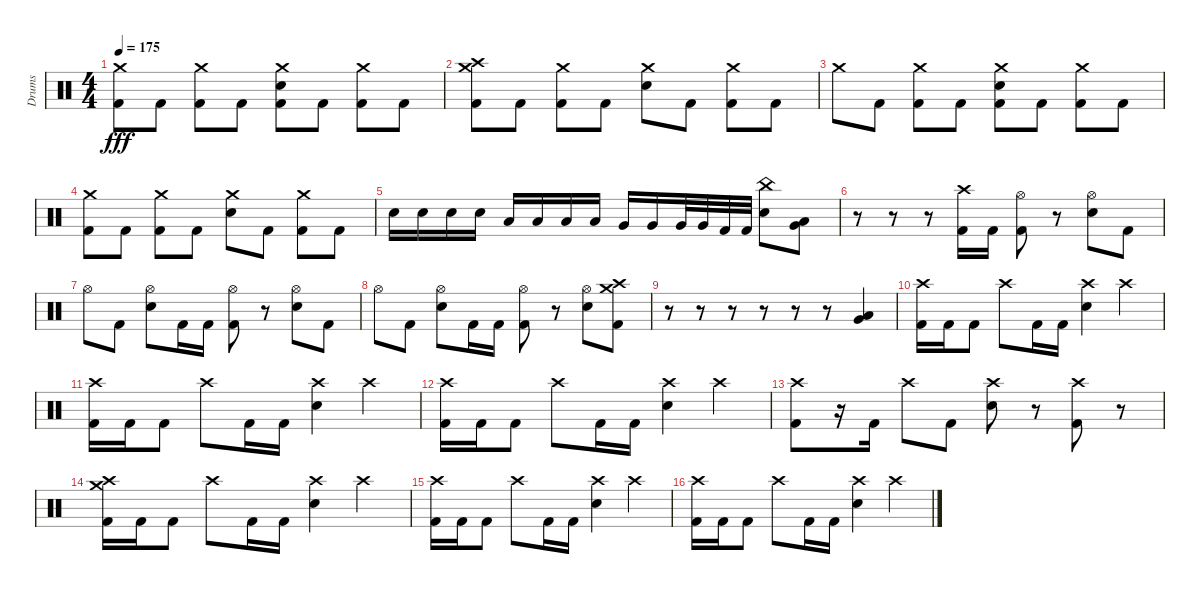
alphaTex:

\track ("Drums" "Drums") {instrument percussion}
\staff {score}
\articulation defaults
\ts (4 4)
\tempo 175
\clef neutral
\ks c
("Crash medium (hit)" "Kick (hit) 2").8{dy fff} "Kick (hit) 2".8 ("Crash medium (hit)" "Kick (hit) 2").8 "Kick (hit) 2".8 ("Crash medium (hit)" "Snare (hit) 2" "Kick (hit) 2").8 "Kick (hit) 2".8 ("Crash medium (hit)" "Kick (hit) 2").8 "Kick (hit) 2".8 |
("Crash high (hit)" "Crash medium (hit)" "Kick (hit) 2").8 "Kick (hit) 2".8 ("Crash medium (hit)" "Kick (hit) 2").8 "Kick (hit) 2".8 ("Crash medium (hit)" "Snare (hit) 2").8 "Kick (hit) 2".8 ("Crash medium (hit)" "Kick (hit) 2").8 "Kick (hit) 2".8 |
"Crash medium (hit)".8 "Kick (hit) 2".8 ("Crash medium (hit)" "Kick (hit) 2").8 "Kick (hit) 2".8 ("Crash medium (hit)" "Snare (hit) 2" "Kick (hit) 2").8 "Kick (hit) 2".8 ("Crash medium (hit)" "Kick (hit) 2").8 "Kick (hit) 2".8 |
("Crash medium (hit)" "Kick (hit) 2").8 "Kick (hit) 2".8 ("Crash medium (hit)" "Kick (hit) 2").8 "Kick (hit) 2".8 ("Crash medium (hit)" "Snare (hit) 2").8 "Kick (hit) 2".8 ("Crash medium (hit)" "Kick (hit) 2").8 "Kick (hit) 2".8 |
"Snare (hit) 2".16 "Snare (hit) 2".16 "Snare (hit) 2".16 "Snare (hit) 2".16 "Low Tom (hit)".16 "Low Tom (hit)".16 "Low Tom (hit)".16 "Low Tom (hit)".16 "Very Low Tom (hit)".16 "Very Low Tom (hit)".16 "Very Low Tom (hit)".32 "Very Low Tom (hit)".32 "Kick (hit) 2".32 "Kick (hit) 2".32 ("China (hit)" "Snare (hit) 2").8 ("Low Floor Tom (hit)" "Very Low Tom (hit)").8 |
r.8 r.8 r.8 ("Crash high (hit)" "Kick (hit) 2").16 "Kick (hit) 2".16 ("Hi-Hat (open)" "Kick (hit) 2").8 r.8 ("Hi-Hat (open)" "Snare (hit) 2").8 "Kick (hit) 2".8 |
"Hi-Hat (open)".8 "Kick (hit) 2".8 ("Hi-Hat (open)" "Snare (hit) 2").8 "Kick (hit) 2".16 "Kick (hit) 2".16 ("Hi-Hat (open)" "Kick (hit) 2").8 r.8 ("Hi-Hat (open)" "Snare (hit) 2").8 "Kick (hit) 2".8 |
"Hi-Hat (open)".8 "Kick (hit) 2".8 ("Hi-Hat (open)" "Snare (hit) 2").8 "Kick (hit) 2".16 "Kick (hit) 2".16 ("Hi-Hat (open)" "Kick (hit) 2").8 r.8 ("Hi-Hat (open)" "Snare (hit) 2").8 ("Crash medium (hit)" "Crash high (hit)" "Kick (hit) 2").8 |
r.8 r.8 r.8 r.8 r.8 r.8 ("Low Tom (hit)" "Very Low Tom (hit)").4 |
("Crash high (hit)" "Kick (hit) 2").16 "Kick (hit) 2".16 "Kick (hit) 2".8 "Crash high (hit)".8 "Kick (hit) 2".16 "Kick (hit) 2".16 ("Crash high (hit)" "Snare (hit) 2").4 "Crash high (hit)".4 |
("Crash high (hit)" "Kick (hit) 2").16 "Kick (hit) 2".16 "Kick (hit) 2".8 "Crash high (hit)".8 "Kick (hit) 2".16 "Kick (hit) 2".16 ("Crash high (hit)" "Snare (hit) 2").4 "Crash high (hit)".4 |
("Crash high (hit)" "Kick (hit) 2").16 "Kick (hit) 2".16 "Kick (hit) 2".8 "Crash high (hit)".8 "Kick (hit) 2".16 "Kick (hit) 2".16 ("Crash high (hit)" "Snare (hit) 2").4 "Crash high (hit)".4 |
("Crash high (hit)" "Kick (hit) 2").8 r.16 "Kick (hit) 2".16 "Crash high (hit)".8 "Kick (hit) 2".8 ("Crash high (hit)" "Snare (hit) 2").8 r.8 ("Crash high (hit)" "Kick (hit) 2").8 r.8 |
("Crash high (hit)" "Crash medium (hit)" "Kick (hit) 2").16 "Kick (hit) 2".16 "Kick (hit) 2".8 "Crash high (hit)".8 "Kick (hit) 2".16 "Kick (hit) 2".16 ("Crash high (hit)" "Snare (hit) 2").4 "Crash high (hit)".4 |
("Crash high (hit)" "Kick (hit) 2").16 "Kick (hit) 2".16 "Kick (hit) 2".8 "Crash high (hit)".8 "Kick (hit) 2".16 "Kick (hit) 2".16 ("Crash high (hit)" "Snare (hit) 2").4 "Crash high (hit)".4 |
("Crash high (hit)" "Kick (hit) 2").16 "Kick (hit) 2".16 "Kick (hit) 2".8 "Crash high (hit)".8 "Kick (hit) 2".16 "Kick (hit) 2".16 ("Crash high (hit)" "Snare (hit) 2").4 "Crash high (hit)".4
